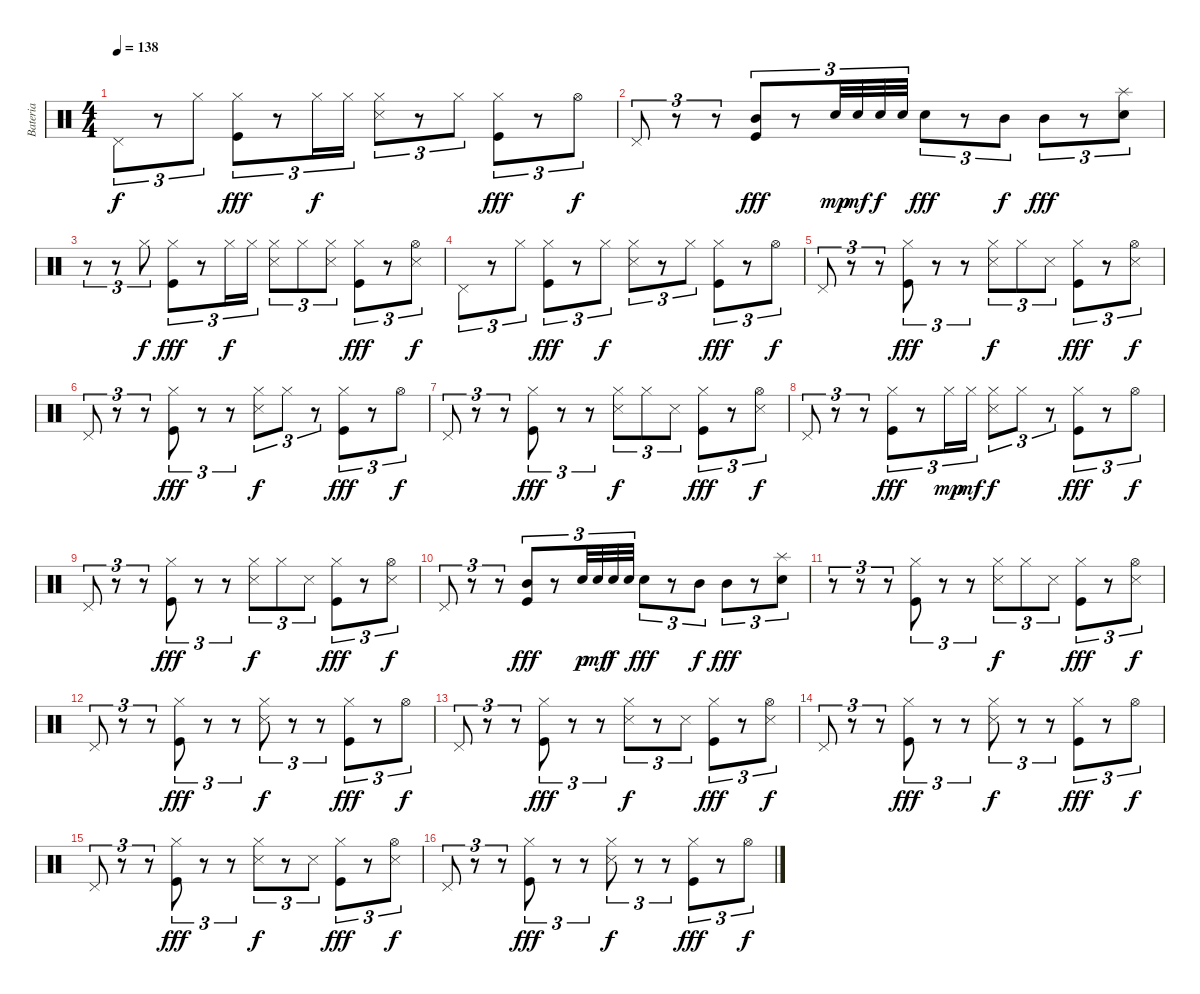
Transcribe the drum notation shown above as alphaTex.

\track ("Bateria" "Bateria") {instrument percussion}
\staff {score}
\articulation defaults
\ts (4 4)
\tempo 138
\clef neutral
\ks c "Pedal Hi-Hat (hit)".8{tu (3 2) dy f}
r.8{tu (3 2)} "Hi-Hat (closed)".8{tu (3 2)} ("Kick (hit)" "Hi-Hat (closed)").8{tu (3 2) dy fff} r.8{tu (3 2)} "Hi-Hat (closed)".16{tu (3 2) dy f} "Hi-Hat (closed)".16{tu (3 2)} ("Snare (side stick) 3" "Hi-Hat (closed)").8{tu (3 2)} r.8{tu (3 2)} "Hi-Hat (closed)".8{tu (3 2)} ("Kick (hit)" "Hi-Hat (closed)").8{tu (3 2) dy fff} r.8{tu (3 2)} "Hi-Hat (open)".8{tu (3 2) dy f} |
"Pedal Hi-Hat (hit)".8{tu (3 2)} r.8{tu (3 2)} r.8{tu (3 2)} ("Kick (hit)" "Mid Tom (hit)").8{tu (3 2) dy fff} r.8{tu (3 2)} "Electric Snare (hit)".32{tu (3 2) dy mp} "Electric Snare (hit)".32{tu (3 2) dy mf} "Electric Snare (hit)".32{tu (3 2) dy f} "Electric Snare (hit)".32{tu (3 2)} "Electric Snare (hit)".8{tu (3 2) dy fff} r.8{tu (3 2)} "Mid Tom (hit)".8{tu (3 2) dy f} "Mid Tom (hit)".8{tu (3 2) dy fff} r.8{tu (3 2)} ("Electric Snare (hit)" "Splash (hit)").8{tu (3 2)} |
r.8{tu (3 2)} r.8{tu (3 2)} "Hi-Hat (closed)".8{tu (3 2) dy f} ("Kick (hit)" "Hi-Hat (closed)").8{tu (3 2) dy fff} r.8{tu (3 2)} "Hi-Hat (closed)".16{tu (3 2) dy f} "Hi-Hat (closed)".16{tu (3 2)} ("Snare (side stick) 3" "Hi-Hat (closed)").8{tu (3 2)} "Hi-Hat (closed)".8{tu (3 2)} ("Snare (side stick) 3" "Hi-Hat (closed)").8{tu (3 2)} ("Kick (hit)" "Hi-Hat (closed)").8{tu (3 2) dy fff} r.8{tu (3 2)} ("Snare (side stick) 3" "Hi-Hat (open)").8{tu (3 2) dy f} |
"Pedal Hi-Hat (hit)".8{tu (3 2)} r.8{tu (3 2)} "Hi-Hat (closed)".8{tu (3 2)} ("Kick (hit)" "Hi-Hat (closed)").8{tu (3 2) dy fff} r.8{tu (3 2)} "Hi-Hat (closed)".8{tu (3 2) dy f} ("Snare (side stick) 3" "Hi-Hat (closed)").8{tu (3 2)} r.8{tu (3 2)} "Hi-Hat (closed)".8{tu (3 2)} ("Kick (hit)" "Hi-Hat (closed)").8{tu (3 2) dy fff} r.8{tu (3 2)} "Hi-Hat (open)".8{tu (3 2) dy f} |
"Pedal Hi-Hat (hit)".8{tu (3 2)} r.8{tu (3 2)} r.8{tu (3 2)} ("Kick (hit)" "Hi-Hat (closed)").8{tu (3 2) dy fff} r.8{tu (3 2)} r.8{tu (3 2)} ("Snare (side stick) 3" "Hi-Hat (closed)").8{tu (3 2) dy f} "Hi-Hat (closed)".8{tu (3 2)} "Snare (side stick) 3".8{tu (3 2)} ("Kick (hit)" "Hi-Hat (closed)").8{tu (3 2) dy fff} r.8{tu (3 2)} ("Snare (side stick) 3" "Hi-Hat (open)").8{tu (3 2) dy f} |
"Pedal Hi-Hat (hit)".8{tu (3 2)} r.8{tu (3 2)} r.8{tu (3 2)} ("Kick (hit)" "Hi-Hat (closed)").8{tu (3 2) dy fff} r.8{tu (3 2)} r.8{tu (3 2)} ("Snare (side stick) 3" "Hi-Hat (closed)").8{tu (3 2) dy f} "Hi-Hat (closed)".8{tu (3 2)} r.8{tu (3 2)} ("Kick (hit)" "Hi-Hat (closed)").8{tu (3 2) dy fff} r.8{tu (3 2)} "Hi-Hat (open)".8{tu (3 2) dy f} |
"Pedal Hi-Hat (hit)".8{tu (3 2)} r.8{tu (3 2)} r.8{tu (3 2)} ("Kick (hit)" "Hi-Hat (closed)").8{tu (3 2) dy fff} r.8{tu (3 2)} r.8{tu (3 2)} ("Snare (side stick) 3" "Hi-Hat (closed)").8{tu (3 2) dy f} "Hi-Hat (closed)".8{tu (3 2)} "Snare (side stick) 3".8{tu (3 2)} ("Kick (hit)" "Hi-Hat (closed)").8{tu (3 2) dy fff} r.8{tu (3 2)} ("Snare (side stick) 3" "Hi-Hat (open)").8{tu (3 2) dy f} |
"Pedal Hi-Hat (hit)".8{tu (3 2)} r.8{tu (3 2)} r.8{tu (3 2)} ("Kick (hit)" "Hi-Hat (closed)").8{tu (3 2) dy fff} r.8{tu (3 2)} "Hi-Hat (closed)".16{tu (3 2) dy mp} "Hi-Hat (closed)".16{tu (3 2) dy mf} ("Snare (side stick) 3" "Hi-Hat (closed)").8{tu (3 2) dy f} "Hi-Hat (closed)".8{tu (3 2)} r.8{tu (3 2)} ("Kick (hit)" "Hi-Hat (closed)").8{tu (3 2) dy fff} r.8{tu (3 2)} "Hi-Hat (open)".8{tu (3 2) dy f} |
"Pedal Hi-Hat (hit)".8{tu (3 2)} r.8{tu (3 2)} r.8{tu (3 2)} ("Kick (hit)" "Hi-Hat (closed)").8{tu (3 2) dy fff} r.8{tu (3 2)} r.8{tu (3 2)} ("Snare (side stick) 3" "Hi-Hat (closed)").8{tu (3 2) dy f} "Hi-Hat (closed)".8{tu (3 2)} "Snare (side stick) 3".8{tu (3 2)} ("Kick (hit)" "Hi-Hat (closed)").8{tu (3 2) dy fff} r.8{tu (3 2)} ("Snare (side stick) 3" "Hi-Hat (open)").8{tu (3 2) dy f} |
"Pedal Hi-Hat (hit)".8{tu (3 2)} r.8{tu (3 2)} r.8{tu (3 2)} ("Kick (hit)" "Mid Tom (hit)").8{tu (3 2) dy fff} r.8{tu (3 2)} "Electric Snare (hit)".32{tu (3 2) dy p} "Electric Snare (hit)".32{tu (3 2) dy mf} "Electric Snare (hit)".32{tu (3 2) dy f} "Electric Snare (hit)".32{tu (3 2)} "Electric Snare (hit)".8{tu (3 2) dy fff} r.8{tu (3 2)} "Mid Tom (hit)".8{tu (3 2) dy f} "Mid Tom (hit)".8{tu (3 2) dy fff} r.8{tu (3 2)} ("Electric Snare (hit)" "Splash (hit)").8{tu (3 2)} |
r.8{tu (3 2)} r.8{tu (3 2)} r.8{tu (3 2)} ("Kick (hit)" "Hi-Hat (closed)").8{tu (3 2)} r.8{tu (3 2)} r.8{tu (3 2)} ("Snare (side stick) 3" "Hi-Hat (closed)").8{tu (3 2) dy f} "Hi-Hat (closed)".8{tu (3 2)} "Snare (side stick) 3".8{tu (3 2)} ("Kick (hit)" "Hi-Hat (closed)").8{tu (3 2) dy fff} r.8{tu (3 2)} ("Snare (side stick) 3" "Hi-Hat (open)").8{tu (3 2) dy f} |
"Pedal Hi-Hat (hit)".8{tu (3 2)} r.8{tu (3 2)} r.8{tu (3 2)} ("Kick (hit)" "Hi-Hat (closed)").8{tu (3 2) dy fff} r.8{tu (3 2)} r.8{tu (3 2)} ("Snare (side stick) 3" "Hi-Hat (closed)").8{tu (3 2) dy f} r.8{tu (3 2)} r.8{tu (3 2)} ("Kick (hit)" "Hi-Hat (closed)").8{tu (3 2) dy fff} r.8{tu (3 2)} "Hi-Hat (open)".8{tu (3 2) dy f} |
"Pedal Hi-Hat (hit)".8{tu (3 2)} r.8{tu (3 2)} r.8{tu (3 2)} ("Kick (hit)" "Hi-Hat (closed)").8{tu (3 2) dy fff} r.8{tu (3 2)} r.8{tu (3 2)} ("Snare (side stick) 3" "Hi-Hat (closed)").8{tu (3 2) dy f} r.8{tu (3 2)} "Snare (side stick) 3".8{tu (3 2)} ("Kick (hit)" "Hi-Hat (closed)").8{tu (3 2) dy fff} r.8{tu (3 2)} ("Snare (side stick) 3" "Hi-Hat (open)").8{tu (3 2) dy f} |
"Pedal Hi-Hat (hit)".8{tu (3 2)} r.8{tu (3 2)} r.8{tu (3 2)} ("Kick (hit)" "Hi-Hat (closed)").8{tu (3 2) dy fff} r.8{tu (3 2)} r.8{tu (3 2)} ("Snare (side stick) 3" "Hi-Hat (closed)").8{tu (3 2) dy f} r.8{tu (3 2)} r.8{tu (3 2)} ("Kick (hit)" "Hi-Hat (closed)").8{tu (3 2) dy fff} r.8{tu (3 2)} "Hi-Hat (open)".8{tu (3 2) dy f} |
"Pedal Hi-Hat (hit)".8{tu (3 2)} r.8{tu (3 2)} r.8{tu (3 2)} ("Kick (hit)" "Hi-Hat (closed)").8{tu (3 2) dy fff} r.8{tu (3 2)} r.8{tu (3 2)} ("Snare (side stick) 3" "Hi-Hat (closed)").8{tu (3 2) dy f} r.8{tu (3 2)} "Snare (side stick) 3".8{tu (3 2)} ("Kick (hit)" "Hi-Hat (closed)").8{tu (3 2) dy fff} r.8{tu (3 2)} ("Snare (side stick) 3" "Hi-Hat (open)").8{tu (3 2) dy f} |
"Pedal Hi-Hat (hit)".8{tu (3 2)} r.8{tu (3 2)} r.8{tu (3 2)} ("Kick (hit)" "Hi-Hat (closed)").8{tu (3 2) dy fff} r.8{tu (3 2)} r.8{tu (3 2)} ("Snare (side stick) 3" "Hi-Hat (closed)").8{tu (3 2) dy f} r.8{tu (3 2)} r.8{tu (3 2)} ("Kick (hit)" "Hi-Hat (closed)").8{tu (3 2) dy fff} r.8{tu (3 2)} "Hi-Hat (open)".8{tu (3 2) dy f}
